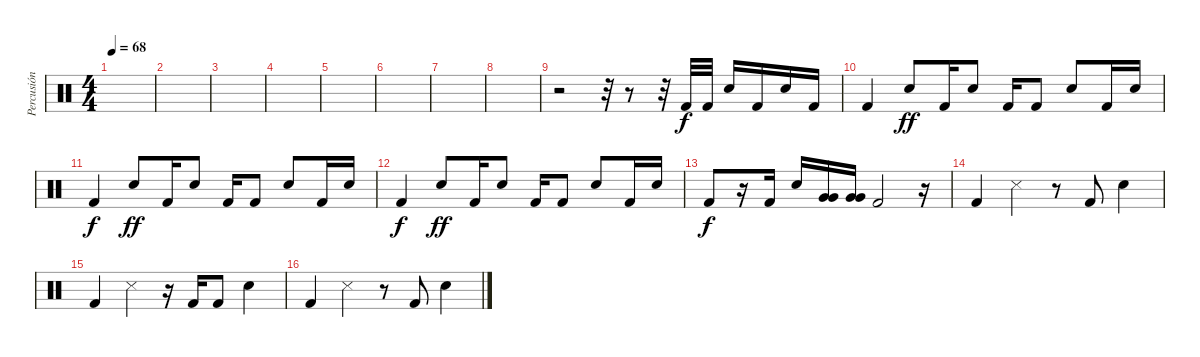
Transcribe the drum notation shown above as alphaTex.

\track ("Percusión" "Percusión") {instrument percussion}
\staff {score}
\articulation defaults
\ts (4 4)
\tempo 68
\clef neutral
\ks c
|
|
|
|
|
|
|
|
r.2 r.32 r.8 r.32 "Kick (hit) 2".32 "Kick (hit) 2".32 "Snare (hit) 2".16 "Kick (hit) 2".16 "Snare (hit) 2".16 "Kick (hit) 2".16 |
"Kick (hit) 2".4 "Snare (hit) 2".8{dy ff} "Kick (hit) 2".16 "Snare (hit) 2".8 "Kick (hit) 2".16 "Kick (hit) 2".8 "Snare (hit) 2".8 "Kick (hit) 2".16 "Snare (hit) 2".16 |
"Kick (hit) 2".4{dy f} "Snare (hit) 2".8{dy ff} "Kick (hit) 2".16 "Snare (hit) 2".8 "Kick (hit) 2".16 "Kick (hit) 2".8 "Snare (hit) 2".8 "Kick (hit) 2".16 "Snare (hit) 2".16 |
"Kick (hit) 2".4{dy f} "Snare (hit) 2".8{dy ff} "Kick (hit) 2".16 "Snare (hit) 2".8 "Kick (hit) 2".16 "Kick (hit) 2".8 "Snare (hit) 2".8 "Kick (hit) 2".16 "Snare (hit) 2".16 |
"Kick (hit) 2".8{dy f} r.16 "Kick (hit) 2".16 "Snare (hit) 2".16 ("Very Low Tom (hit)" "Very Low Tom (hit)").16 ("Very Low Tom (hit)" "Very Low Tom (hit)").16 "Kick (hit) 2".2 r.16 |
"Kick (hit) 2".4 "Snare (side stick) 3".4 r.8 "Kick (hit) 2".8 "Snare (hit) 2".4 |
"Kick (hit) 2".4 "Snare (side stick) 3".4 r.16 "Kick (hit) 2".16 "Kick (hit) 2".8 "Snare (hit) 2".4 |
"Kick (hit) 2".4 "Snare (side stick) 3".4 r.8 "Kick (hit) 2".8 "Snare (hit) 2".4
